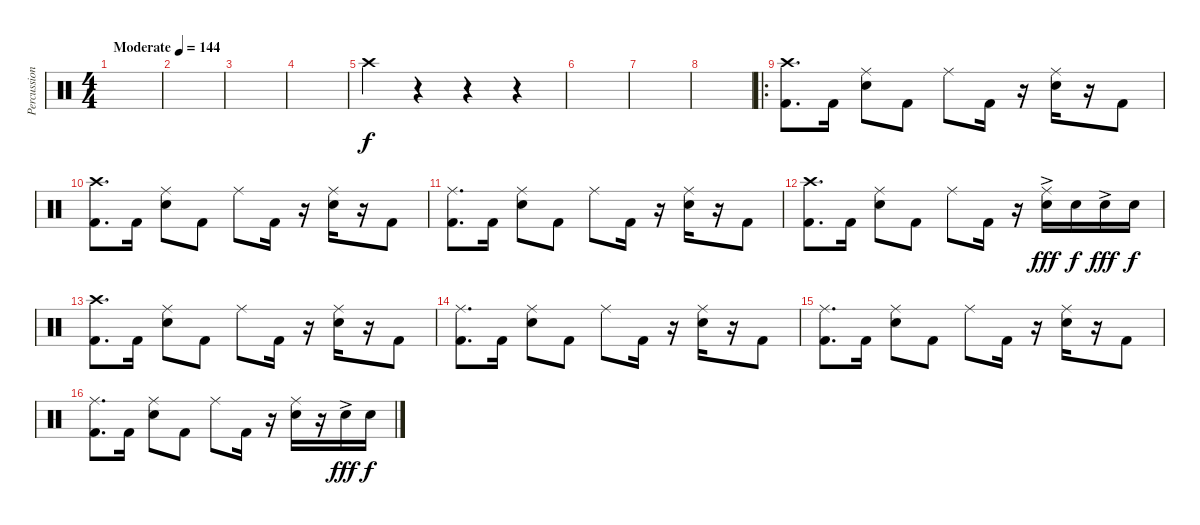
\track ("Percussion" "Percussion") {instrument percussion}
\staff {score}
\articulation defaults
\ts (4 4)
\tempo (144 "Moderate")
\clef neutral
\ks c
|
|
|
|
"Crash high (hit)".4 r.4 r.4 r.4 |
|
|
|
\ro
("Crash high (hit)" "Kick (hit) 2").8{d} "Kick (hit) 2".16 ("Ride (middle)" "Snare (hit) 2").8 "Kick (hit) 2".8 "Ride (middle)".8 "Kick (hit) 2".16 r.16 ("Ride (middle)" "Snare (hit) 2").16 r.16 "Kick (hit) 2".8 |
("Crash high (hit)" "Kick (hit) 2").8{d} "Kick (hit) 2".16 ("Ride (middle)" "Snare (hit) 2").8 "Kick (hit) 2".8 "Ride (middle)".8 "Kick (hit) 2".16 r.16 ("Ride (middle)" "Snare (hit) 2").16 r.16 "Kick (hit) 2".8 |
("Ride (middle)" "Kick (hit) 2").8{d} "Kick (hit) 2".16 ("Ride (middle)" "Snare (hit) 2").8 "Kick (hit) 2".8 "Ride (middle)".8 "Kick (hit) 2".16 r.16 ("Ride (middle)" "Snare (hit) 2").16 r.16 "Kick (hit) 2".8 |
("Crash high (hit)" "Kick (hit) 2").8{d} "Kick (hit) 2".16 ("Ride (middle)" "Snare (hit) 2").8 "Kick (hit) 2".8 "Ride (middle)".8 "Kick (hit) 2".16 r.16 ("Ride (middle)" "Snare (hit) 2"{ac}).16{dy fff} "Snare (hit) 2".16{dy f} "Snare (hit) 2"{ac}.16{dy fff} "Snare (hit) 2".16{dy f} |
("Crash high (hit)" "Kick (hit) 2").8{d} "Kick (hit) 2".16 ("Ride (middle)" "Snare (hit) 2").8 "Kick (hit) 2".8 "Ride (middle)".8 "Kick (hit) 2".16 r.16 ("Ride (middle)" "Snare (hit) 2").16 r.16 "Kick (hit) 2".8 |
("Ride (middle)" "Kick (hit) 2").8{d} "Kick (hit) 2".16 ("Ride (middle)" "Snare (hit) 2").8 "Kick (hit) 2".8 "Ride (middle)".8 "Kick (hit) 2".16 r.16 ("Ride (middle)" "Snare (hit) 2").16 r.16 "Kick (hit) 2".8 |
("Ride (middle)" "Kick (hit) 2").8{d} "Kick (hit) 2".16 ("Ride (middle)" "Snare (hit) 2").8 "Kick (hit) 2".8 "Ride (middle)".8 "Kick (hit) 2".16 r.16 ("Ride (middle)" "Snare (hit) 2").16 r.16 "Kick (hit) 2".8 |
("Ride (middle)" "Kick (hit) 2").8{d} "Kick (hit) 2".16 ("Ride (middle)" "Snare (hit) 2").8 "Kick (hit) 2".8 "Ride (middle)".8 "Kick (hit) 2".16 r.16 ("Ride (middle)" "Snare (hit) 2").16 r.16 "Snare (hit) 2"{ac}.16{dy fff} "Snare (hit) 2".16{dy f}
